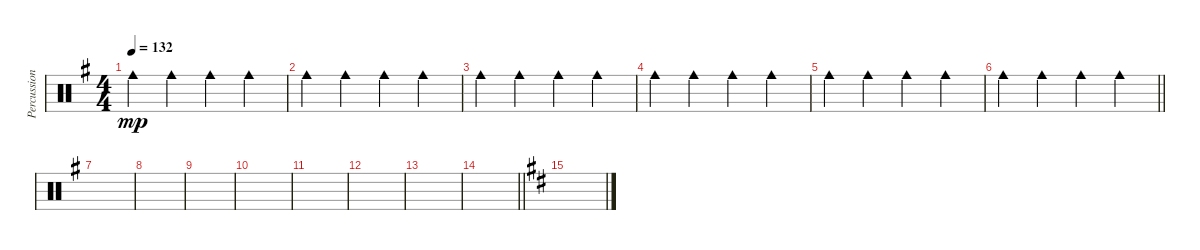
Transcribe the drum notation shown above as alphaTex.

\track ("Percussion" "Percussion") {instrument percussion}
\staff {score}
\articulation defaults
\ts (4 4)
\tempo 132
\clef neutral
\ks eminor "Cowbell medium (hit)".4{dy mp} "Cowbell medium (hit)".4 "Cowbell medium (hit)".4 "Cowbell medium (hit)".4
|
"Cowbell medium (hit)".4 "Cowbell medium (hit)".4 "Cowbell medium (hit)".4 "Cowbell medium (hit)".4 |
"Cowbell medium (hit)".4 "Cowbell medium (hit)".4 "Cowbell medium (hit)".4 "Cowbell medium (hit)".4 |
"Cowbell medium (hit)".4 "Cowbell medium (hit)".4 "Cowbell medium (hit)".4 "Cowbell medium (hit)".4 |
"Cowbell medium (hit)".4 "Cowbell medium (hit)".4 "Cowbell medium (hit)".4 "Cowbell medium (hit)".4 |
\barLineRight lightlight "Cowbell medium (hit)".4 "Cowbell medium (hit)".4 "Cowbell medium (hit)".4 "Cowbell medium (hit)".4
|
|
|
|
|
|
|
|
\barLineRight lightlight
|
\ks d
